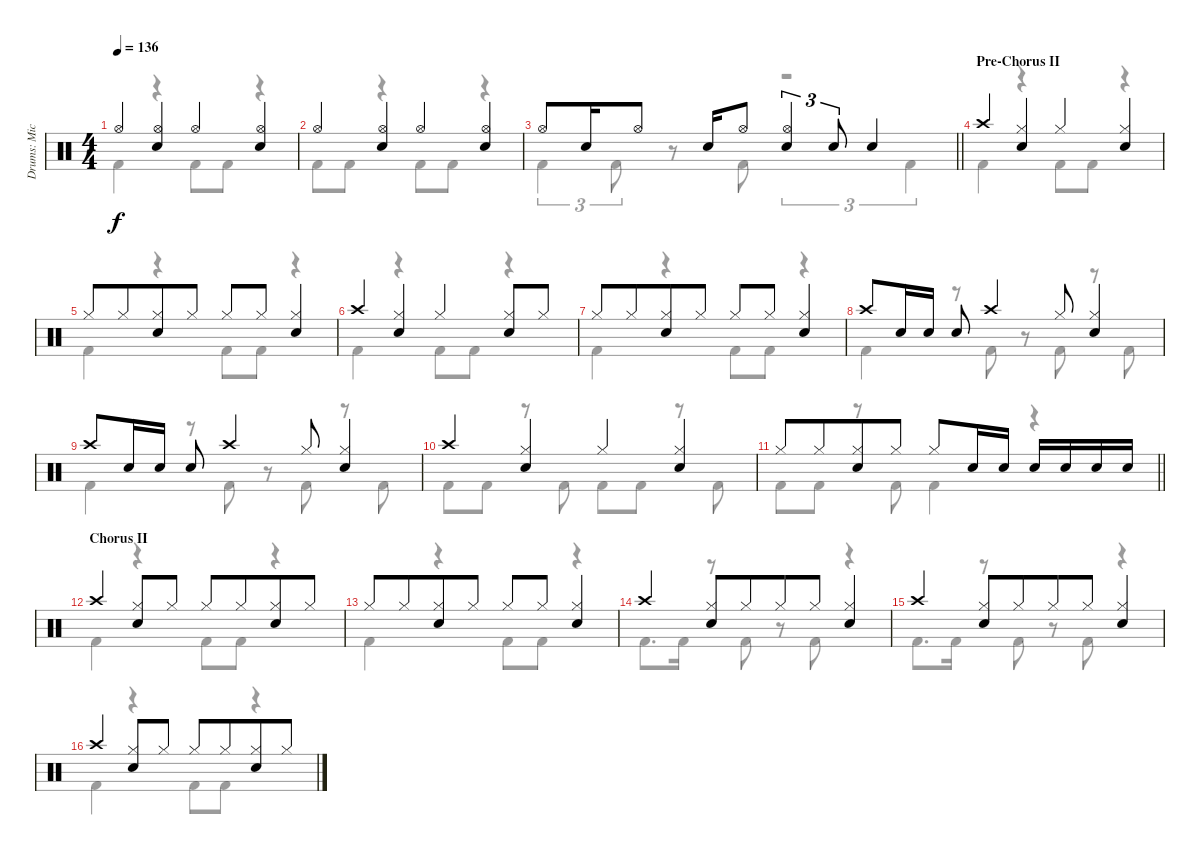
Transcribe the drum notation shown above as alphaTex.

\track ("Drums: Mick" "Drums: Mic") {instrument percussion}
\staff {score}
\articulation defaults
\voice
\ts (4 4)
\tempo 136
\clef neutral
\ks c "Hi-Hat (open)".4{dy f}
("Hi-Hat (open)" "Snare (hit) 2").4 "Hi-Hat (open)".4 ("Hi-Hat (open)" "Snare (hit) 2").4 |
"Hi-Hat (open)".4 ("Hi-Hat (open)" "Snare (hit) 2").4 "Hi-Hat (open)".4 ("Hi-Hat (open)" "Snare (hit) 2").4 |
\barLineRight lightlight "Hi-Hat (open)".8 "Snare (hit) 2".16 "Hi-Hat (open)".8 "Snare (hit) 2".16 "Hi-Hat (open)".8
("Hi-Hat (open)" "Snare (hit) 2").4{tu (3 2)} "Snare (hit) 2".8{tu (3 2)} "Snare (hit) 2".4 |
\section ("" "Pre-Chorus II")
"Crash high (hit)".4 ("Hi-Hat (closed)" "Snare (hit) 2").4 "Hi-Hat (closed)".4 ("Hi-Hat (closed)" "Snare (hit) 2").4 |
"Hi-Hat (closed)".8 "Hi-Hat (closed)".8{beam merge} ("Hi-Hat (closed)" "Snare (hit) 2").8 "Hi-Hat (closed)".8 "Hi-Hat (closed)".8 "Hi-Hat (closed)".8 ("Hi-Hat (closed)" "Snare (hit) 2").4 |
"Crash high (hit)".4 ("Hi-Hat (closed)" "Snare (hit) 2").4 "Hi-Hat (closed)".4 ("Hi-Hat (closed)" "Snare (hit) 2").8 "Hi-Hat (closed)".8 |
"Hi-Hat (closed)".8 "Hi-Hat (closed)".8{beam merge} ("Hi-Hat (closed)" "Snare (hit) 2").8 "Hi-Hat (closed)".8 "Hi-Hat (closed)".8 "Hi-Hat (closed)".8 ("Hi-Hat (closed)" "Snare (hit) 2").4 |
"Crash high (hit)".8 "Snare (hit) 2".16 "Snare (hit) 2".16 "Snare (hit) 2".8 "Crash high (hit)".4 "Hi-Hat (closed)".8 ("Hi-Hat (closed)" "Snare (hit) 2").4 |
"Crash high (hit)".8 "Snare (hit) 2".16 "Snare (hit) 2".16 "Snare (hit) 2".8 "Crash high (hit)".4 "Hi-Hat (closed)".8 ("Hi-Hat (closed)" "Snare (hit) 2").4 |
"Crash high (hit)".4 ("Hi-Hat (closed)" "Snare (hit) 2").4 "Hi-Hat (closed)".4 ("Hi-Hat (closed)" "Snare (hit) 2").4 |
\barLineRight lightlight "Hi-Hat (closed)".8 "Hi-Hat (closed)".8{beam merge}
("Hi-Hat (closed)" "Snare (hit) 2").8 "Hi-Hat (closed)".8 "Hi-Hat (closed)".8 "Snare (hit) 2".16 "Snare (hit) 2".16 "Snare (hit) 2".16 "Snare (hit) 2".16 "Snare (hit) 2".16 "Snare (hit) 2".16 |
\section ("" "Chorus II")
"Crash high (hit)".4 ("Hi-Hat (closed)" "Snare (hit) 2").8 "Hi-Hat (closed)".8 "Hi-Hat (closed)".8 "Hi-Hat (closed)".8{beam merge} ("Hi-Hat (closed)" "Snare (hit) 2").8 "Hi-Hat (closed)".8 |
"Hi-Hat (closed)".8 "Hi-Hat (closed)".8{beam merge} ("Hi-Hat (closed)" "Snare (hit) 2").8 "Hi-Hat (closed)".8 "Hi-Hat (closed)".8 "Hi-Hat (closed)".8 ("Hi-Hat (closed)" "Snare (hit) 2").4 |
"Crash high (hit)".4 ("Hi-Hat (closed)" "Snare (hit) 2").8 "Hi-Hat (closed)".8{beam merge} "Hi-Hat (closed)".8 "Hi-Hat (closed)".8{beam merge} ("Hi-Hat (closed)" "Snare (hit) 2").4 |
"Crash high (hit)".4 ("Hi-Hat (closed)" "Snare (hit) 2").8 "Hi-Hat (closed)".8{beam merge} "Hi-Hat (closed)".8 "Hi-Hat (closed)".8{beam merge} ("Hi-Hat (closed)" "Snare (hit) 2").4 |
"Crash high (hit)".4 ("Hi-Hat (closed)" "Snare (hit) 2").8 "Hi-Hat (closed)".8 "Hi-Hat (closed)".8 "Hi-Hat (closed)".8{beam merge} ("Hi-Hat (closed)" "Snare (hit) 2").8 "Hi-Hat (closed)".8
\voice
\clef neutral
\ottava regular
\simile none
\ks c "Kick (hit) 2".4{dy f}
r.4 "Kick (hit) 2".8 "Kick (hit) 2".8 r.4 |
"Kick (hit) 2".8 "Kick (hit) 2".8 r.4 "Kick (hit) 2".8 "Kick (hit) 2".8 r.4 |
\barLineRight lightlight "Kick (hit) 2".4{tu (3 2)} "Kick (hit) 2".8{tu (3 2)}
r.8 "Kick (hit) 2".8 r.2{tu (3 2)} "Kick (hit) 2".4{tu (3 2)} |
"Kick (hit) 2".4 r.4 "Kick (hit) 2".8 "Kick (hit) 2".8 r.4 |
"Kick (hit) 2".4 r.4 "Kick (hit) 2".8 "Kick (hit) 2".8 r.4 |
"Kick (hit) 2".4 r.4 "Kick (hit) 2".8 "Kick (hit) 2".8 r.4 |
"Kick (hit) 2".4 r.4 "Kick (hit) 2".8 "Kick (hit) 2".8 r.4 |
"Kick (hit) 2".4 r.8 "Kick (hit) 2".8 r.8 "Kick (hit) 2".8 r.8 "Kick (hit) 2".8 |
"Kick (hit) 2".4 r.8 "Kick (hit) 2".8 r.8 "Kick (hit) 2".8 r.8 "Kick (hit) 2".8 |
"Kick (hit) 2".8 "Kick (hit) 2".8 r.8 "Kick (hit) 2".8 "Kick (hit) 2".8 "Kick (hit) 2".8 r.8 "Kick (hit) 2".8 |
\barLineRight lightlight "Kick (hit) 2".8 "Kick (hit) 2".8
r.8 "Kick (hit) 2".8 "Kick (hit) 2".4 r.4 |
"Kick (hit) 2".4 r.4 "Kick (hit) 2".8 "Kick (hit) 2".8 r.4 |
"Kick (hit) 2".4 r.4 "Kick (hit) 2".8 "Kick (hit) 2".8 r.4 |
"Kick (hit) 2".8{d} "Kick (hit) 2".16 r.8 "Kick (hit) 2".8 r.8 "Kick (hit) 2".8 r.4 |
"Kick (hit) 2".8{d} "Kick (hit) 2".16 r.8 "Kick (hit) 2".8 r.8 "Kick (hit) 2".8 r.4 |
"Kick (hit) 2".4 r.4 "Kick (hit) 2".8 "Kick (hit) 2".8 r.4
